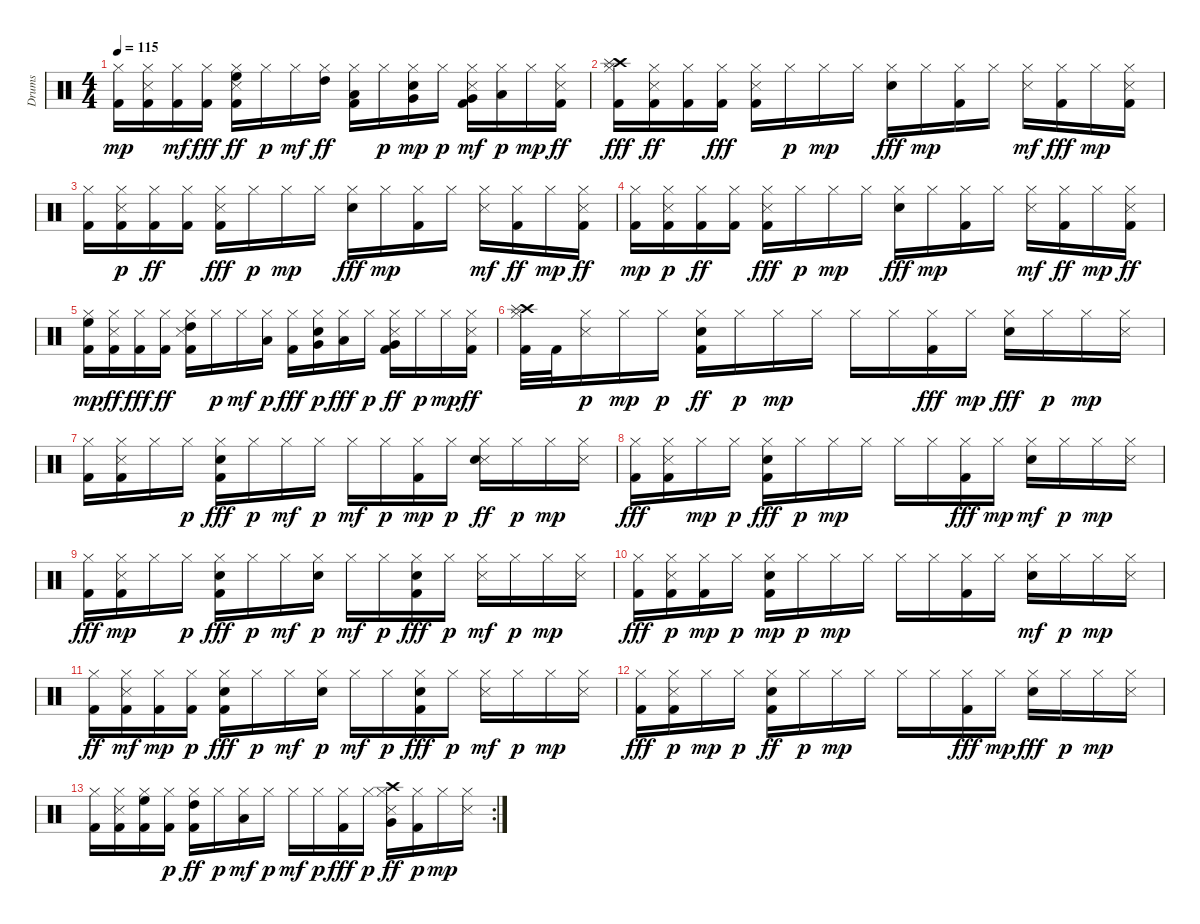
\track ("Drums" "Drums") {instrument percussion}
\staff {score}
\articulation defaults
\ts (4 4)
\tempo 115
\clef neutral
\ks c
("Kick (hit) 2" "Hi-Hat (closed)").16{dy mp} ("Hi-Hat (closed)" "Snare (side stick) 3" "Kick (hit) 2").16 ("Hi-Hat (closed)" "Kick (hit) 2").16{dy mf} ("Hi-Hat (closed)" "Kick (hit) 2").16{dy fff} ("High Floor Tom (hit)" "Hi-Hat (closed)" "Snare (side stick) 3" "Kick (hit) 2").16{dy ff} "Hi-Hat (closed)".16{dy p} "Hi-Hat (closed)".16{dy mf} ("Hi-Hat (closed)" "High Tom (hit)").16{dy ff} ("Hi-Hat (closed)" "Kick (hit) 2" "Low Tom (hit)").16 "Hi-Hat (closed)".16{dy p} ("Snare (hit) 2" "Very Low Tom (hit)" "Hi-Hat (closed)").16{dy mp} "Hi-Hat (closed)".16{dy p} ("Kick (hit) 2" "Very Low Tom (hit)" "Snare (side stick) 3" "Hi-Hat (closed)").16{dy mf} ("Low Floor Tom (hit)" "Hi-Hat (closed)").16{dy p} "Hi-Hat (closed)".16{dy mp} ("Hi-Hat (closed)" "Snare (side stick) 3" "Kick (hit) 2").16{dy ff} |
("Hi-Hat (closed)" "Crash high (hit)" "Splash (hit)" "Kick (hit) 2").16{dy fff} ("Snare (side stick) 3" "Hi-Hat (closed)" "Kick (hit) 2").16{dy ff} ("Hi-Hat (closed)" "Kick (hit) 2").16 ("Hi-Hat (closed)" "Kick (hit) 2").16{dy fff} ("Kick (hit) 2" "Hi-Hat (closed)" "Snare (side stick) 3").16 "Hi-Hat (closed)".16{dy p} "Hi-Hat (closed)".16{dy mp} "Hi-Hat (closed)".16 ("Hi-Hat (closed)" "Snare (hit) 2").16{dy fff} "Hi-Hat (closed)".16{dy mp} ("Kick (hit) 2" "Hi-Hat (closed)").16 "Hi-Hat (closed)".16 ("Snare (side stick) 3" "Hi-Hat (closed)").16{dy mf} ("Hi-Hat (closed)" "Kick (hit) 2").16{dy fff} "Hi-Hat (closed)".16{dy mp} ("Kick (hit) 2" "Hi-Hat (closed)" "Snare (side stick) 3").16 |
("Kick (hit) 2" "Hi-Hat (closed)").16 ("Snare (side stick) 3" "Hi-Hat (closed)" "Kick (hit) 2").16{dy p} ("Hi-Hat (closed)" "Kick (hit) 2").16{dy ff} ("Hi-Hat (closed)" "Kick (hit) 2").16 ("Hi-Hat (closed)" "Snare (side stick) 3" "Kick (hit) 2").16{dy fff} "Hi-Hat (closed)".16{dy p} "Hi-Hat (closed)".16{dy mp} "Hi-Hat (closed)".16 ("Hi-Hat (closed)" "Snare (hit) 2").16{dy fff} "Hi-Hat (closed)".16{dy mp} ("Kick (hit) 2" "Hi-Hat (closed)").16 "Hi-Hat (closed)".16 ("Snare (side stick) 3" "Hi-Hat (closed)").16{dy mf} ("Hi-Hat (closed)" "Kick (hit) 2").16{dy ff} "Hi-Hat (closed)".16{dy mp} ("Hi-Hat (closed)" "Snare (side stick) 3" "Kick (hit) 2").16{dy ff} |
("Kick (hit) 2" "Hi-Hat (closed)").16{dy mp} ("Snare (side stick) 3" "Hi-Hat (closed)" "Kick (hit) 2").16{dy p} ("Hi-Hat (closed)" "Kick (hit) 2").16{dy ff} ("Hi-Hat (closed)" "Kick (hit) 2").16 ("Hi-Hat (closed)" "Snare (side stick) 3" "Kick (hit) 2").16{dy fff} "Hi-Hat (closed)".16{dy p} "Hi-Hat (closed)".16{dy mp} "Hi-Hat (closed)".16 ("Hi-Hat (closed)" "Snare (hit) 2").16{dy fff} "Hi-Hat (closed)".16{dy mp} ("Kick (hit) 2" "Hi-Hat (closed)").16 "Hi-Hat (closed)".16 ("Snare (side stick) 3" "Hi-Hat (closed)").16{dy mf} ("Hi-Hat (closed)" "Kick (hit) 2").16{dy ff} "Hi-Hat (closed)".16{dy mp} ("Hi-Hat (closed)" "Snare (side stick) 3" "Kick (hit) 2").16{dy ff} |
("High Floor Tom (hit)" "Hi-Hat (closed)" "Kick (hit) 2").16{dy mp} ("Hi-Hat (closed)" "Snare (side stick) 3" "Kick (hit) 2").16{dy ff} ("Hi-Hat (closed)" "Kick (hit) 2").16{dy fff} ("Hi-Hat (closed)" "Kick (hit) 2").16{dy ff} ("High Tom (hit)" "Hi-Hat (closed)" "Snare (side stick) 3" "Kick (hit) 2").16 "Hi-Hat (closed)".16{dy p} "Hi-Hat (closed)".16{dy mf} ("Hi-Hat (closed)" "Low Tom (hit)").16{dy p} ("Hi-Hat (closed)" "Kick (hit) 2").16{dy fff} ("Hi-Hat (closed)" "Very Low Tom (hit)" "Snare (hit) 2").16{dy p} ("Hi-Hat (closed)" "Low Tom (hit)").16{dy fff} "Hi-Hat (closed)".16{dy p} ("Kick (hit) 2" "Snare (side stick) 3" "Hi-Hat (closed)" "Very Low Tom (hit)").16{dy ff} "Hi-Hat (closed)".16{dy p} "Hi-Hat (closed)".16{dy mp} ("Hi-Hat (closed)" "Snare (side stick) 3" "Kick (hit) 2").16{dy ff} |
("Kick (hit) 2" "Hi-Hat (closed)" "Crash high (hit)" "Splash (hit)").32 "Kick (hit) 2".32 ("Snare (side stick) 3" "Hi-Hat (closed)").16{dy p} "Hi-Hat (closed)".16{dy mp} "Hi-Hat (closed)".16{dy p} ("Kick (hit) 2" "Hi-Hat (closed)" "Snare (hit) 2").16{dy ff} "Hi-Hat (closed)".16{dy p} "Hi-Hat (closed)".16{dy mp} "Hi-Hat (closed)".16 "Hi-Hat (closed)".16 "Hi-Hat (closed)".16 ("Hi-Hat (closed)" "Kick (hit) 2").16{dy fff} "Hi-Hat (closed)".16{dy mp} ("Hi-Hat (closed)" "Snare (hit) 2").16{dy fff} "Hi-Hat (closed)".16{dy p} "Hi-Hat (closed)".16{dy mp} ("Hi-Hat (closed)" "Snare (side stick) 3").16 |
("Kick (hit) 2" "Hi-Hat (closed)").16 ("Kick (hit) 2" "Hi-Hat (closed)" "Snare (side stick) 3").16 "Hi-Hat (closed)".16 "Hi-Hat (closed)".16{dy p} ("Hi-Hat (closed)" "Kick (hit) 2" "Snare (hit) 2").16{dy fff} "Hi-Hat (closed)".16{dy p} "Hi-Hat (closed)".16{dy mf} "Hi-Hat (closed)".16{dy p} "Hi-Hat (closed)".16{dy mf} "Hi-Hat (closed)".16{dy p} ("Kick (hit) 2" "Hi-Hat (closed)").16{dy mp} "Hi-Hat (closed)".16{dy p} ("Snare (side stick) 3" "Hi-Hat (closed)" "Snare (hit) 2").16{dy ff} "Hi-Hat (closed)".16{dy p} "Hi-Hat (closed)".16{dy mp} ("Hi-Hat (closed)" "Snare (side stick) 3").16 |
("Hi-Hat (closed)" "Kick (hit) 2").16{dy fff} ("Snare (side stick) 3" "Hi-Hat (closed)" "Kick (hit) 2").16 "Hi-Hat (closed)".16{dy mp} "Hi-Hat (closed)".16{dy p} ("Hi-Hat (closed)" "Kick (hit) 2" "Snare (hit) 2").16{dy fff} "Hi-Hat (closed)".16{dy p} "Hi-Hat (closed)".16{dy mp} "Hi-Hat (closed)".16 "Hi-Hat (closed)".16 "Hi-Hat (closed)".16 ("Hi-Hat (closed)" "Kick (hit) 2").16{dy fff} "Hi-Hat (closed)".16{dy mp} ("Snare (hit) 2" "Hi-Hat (closed)").16{dy mf} "Hi-Hat (closed)".16{dy p} "Hi-Hat (closed)".16{dy mp} ("Hi-Hat (closed)" "Snare (side stick) 3").16 |
("Hi-Hat (closed)" "Kick (hit) 2").16{dy fff} ("Hi-Hat (closed)" "Kick (hit) 2" "Snare (side stick) 3").16{dy mp} "Hi-Hat (closed)".16 "Hi-Hat (closed)".16{dy p} ("Kick (hit) 2" "Hi-Hat (closed)" "Snare (hit) 2").16{dy fff} "Hi-Hat (closed)".16{dy p} "Hi-Hat (closed)".16{dy mf} ("Hi-Hat (closed)" "Snare (hit) 2").16{dy p} "Hi-Hat (closed)".16{dy mf} "Hi-Hat (closed)".16{dy p} ("Hi-Hat (closed)" "Snare (hit) 2" "Kick (hit) 2").16{dy fff} "Hi-Hat (closed)".16{dy p} ("Snare (side stick) 3" "Hi-Hat (closed)").16{dy mf} "Hi-Hat (closed)".16{dy p} "Hi-Hat (closed)".16{dy mp} ("Hi-Hat (closed)" "Snare (side stick) 3").16 |
("Hi-Hat (closed)" "Kick (hit) 2").16{dy fff} ("Snare (side stick) 3" "Hi-Hat (closed)" "Kick (hit) 2").16{dy p} ("Hi-Hat (closed)" "Kick (hit) 2").16{dy mp} "Hi-Hat (closed)".16{dy p} ("Kick (hit) 2" "Snare (hit) 2" "Hi-Hat (closed)").16{dy mp} "Hi-Hat (closed)".16{dy p} "Hi-Hat (closed)".16{dy mp} "Hi-Hat (closed)".16 "Hi-Hat (closed)".16 "Hi-Hat (closed)".16 ("Kick (hit) 2" "Hi-Hat (closed)").16 "Hi-Hat (closed)".16 ("Snare (hit) 2" "Hi-Hat (closed)").16{dy mf} "Hi-Hat (closed)".16{dy p} "Hi-Hat (closed)".16{dy mp} ("Hi-Hat (closed)" "Snare (side stick) 3").16 |
("Hi-Hat (closed)" "Kick (hit) 2").16{dy ff} ("Hi-Hat (closed)" "Snare (side stick) 3" "Kick (hit) 2").16{dy mf} ("Hi-Hat (closed)" "Kick (hit) 2").16{dy mp} ("Hi-Hat (closed)" "Kick (hit) 2").16{dy p} ("Hi-Hat (closed)" "Kick (hit) 2" "Snare (hit) 2").16{dy fff} "Hi-Hat (closed)".16{dy p} "Hi-Hat (closed)".16{dy mf} ("Hi-Hat (closed)" "Snare (hit) 2").16{dy p} "Hi-Hat (closed)".16{dy mf} "Hi-Hat (closed)".16{dy p} ("Snare (hit) 2" "Hi-Hat (closed)" "Kick (hit) 2").16{dy fff} "Hi-Hat (closed)".16{dy p} ("Snare (side stick) 3" "Hi-Hat (closed)").16{dy mf} "Hi-Hat (closed)".16{dy p} "Hi-Hat (closed)".16{dy mp} ("Hi-Hat (closed)" "Snare (side stick) 3").16 |
("Hi-Hat (closed)" "Kick (hit) 2").16{dy fff} ("Kick (hit) 2" "Snare (side stick) 3" "Hi-Hat (closed)").16{dy p} "Hi-Hat (closed)".16{dy mp} "Hi-Hat (closed)".16{dy p} ("Hi-Hat (closed)" "Snare (hit) 2" "Kick (hit) 2").16{dy ff} "Hi-Hat (closed)".16{dy p} "Hi-Hat (closed)".16{dy mp} "Hi-Hat (closed)".16 "Hi-Hat (closed)".16 "Hi-Hat (closed)".16 ("Hi-Hat (closed)" "Kick (hit) 2").16{dy fff} "Hi-Hat (closed)".16{dy mp} ("Hi-Hat (closed)" "Snare (hit) 2").16{dy fff} "Hi-Hat (closed)".16{dy p} "Hi-Hat (closed)".16{dy mp} ("Hi-Hat (closed)" "Snare (side stick) 3").16 |
\rc 2
("Kick (hit) 2" "Hi-Hat (closed)").16 ("Hi-Hat (closed)" "Snare (side stick) 3" "Kick (hit) 2").16 ("Kick (hit) 2" "Hi-Hat (closed)" "High Floor Tom (hit)").16 ("Kick (hit) 2" "Hi-Hat (closed)").16{dy p} ("Kick (hit) 2" "Hi-Hat (closed)" "High Tom (hit)").16{dy ff} "Hi-Hat (closed)".16{dy p} ("Hi-Hat (closed)" "Low Tom (hit)").16{dy mf} "Hi-Hat (closed)".16{dy p} "Hi-Hat (closed)".16{dy mf} "Hi-Hat (closed)".16{dy p} ("Hi-Hat (closed)" "Kick (hit) 2").16{dy fff} "Hi-Hat (closed)".16{dy p} ("Very Low Tom (hit)" "Snare (side stick) 3" "Hi-Hat (closed)" "Crash high (hit)").16{dy ff} ("Kick (hit) 2" "Hi-Hat (closed)").16{dy p} "Hi-Hat (closed)".16{dy mp} ("Hi-Hat (closed)" "Snare (side stick) 3").16
